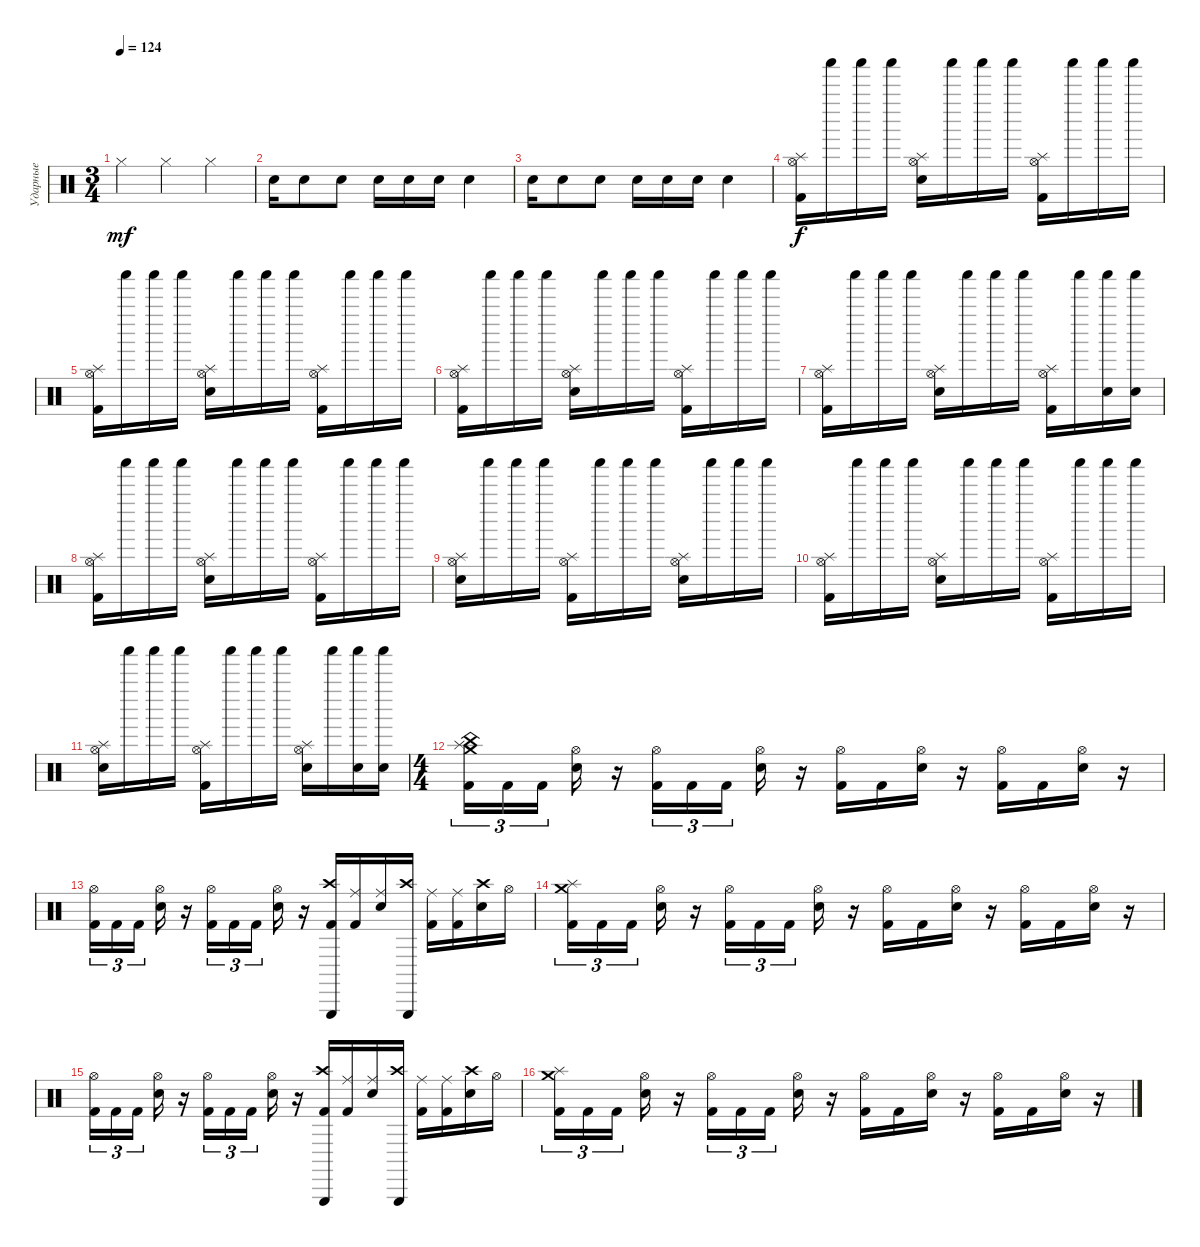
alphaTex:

\track ("Ударные" "Ударные") {instrument percussion bank 127}
\staff
\articulation defaults
\ts (3 4)
\tempo 124
\clef neutral
\ks c "Hi-Hat (closed)".4{dy mf} "Hi-Hat (closed)".4 "Hi-Hat (closed)".4
|
"Snare (hit) 2".16 "Snare (hit) 2".8 "Snare (hit) 2".8 "Snare (hit) 2".16 "Snare (hit) 2".16 "Snare (hit) 2".16 "Snare (hit) 2".4 |
"Snare (hit) 2".16 "Snare (hit) 2".8 "Snare (hit) 2".8 "Snare (hit) 2".16 "Snare (hit) 2".16 "Snare (hit) 2".16 "Snare (hit) 2".4 |
("Splash (hit)" "Hi-Hat (open)" "Kick (hit) 2").16{dy f} "Shaker (hit)".16 "Shaker (hit)".16 "Shaker (hit)".16 ("Splash (hit)" "Hi-Hat (open)" "Snare (hit) 2").16 "Shaker (hit)".16 "Shaker (hit)".16 "Shaker (hit)".16 ("Splash (hit)" "Hi-Hat (open)" "Kick (hit) 2").16 "Shaker (hit)".16 "Shaker (hit)".16 "Shaker (hit)".16 |
("Splash (hit)" "Hi-Hat (open)" "Kick (hit) 2").16 "Shaker (hit)".16 "Shaker (hit)".16 "Shaker (hit)".16 ("Splash (hit)" "Hi-Hat (open)" "Snare (hit) 2").16 "Shaker (hit)".16 "Shaker (hit)".16 "Shaker (hit)".16 ("Splash (hit)" "Hi-Hat (open)" "Kick (hit) 2").16 "Shaker (hit)".16 "Shaker (hit)".16 "Shaker (hit)".16 |
("Splash (hit)" "Hi-Hat (open)" "Kick (hit) 2").16 "Shaker (hit)".16 "Shaker (hit)".16 "Shaker (hit)".16 ("Splash (hit)" "Hi-Hat (open)" "Snare (hit) 2").16 "Shaker (hit)".16 "Shaker (hit)".16 "Shaker (hit)".16 ("Splash (hit)" "Hi-Hat (open)" "Kick (hit) 2").16 "Shaker (hit)".16 "Shaker (hit)".16 "Shaker (hit)".16 |
("Splash (hit)" "Hi-Hat (open)" "Kick (hit) 2").16 "Shaker (hit)".16 "Shaker (hit)".16 "Shaker (hit)".16 ("Splash (hit)" "Hi-Hat (open)" "Snare (hit) 2").16 "Shaker (hit)".16 "Shaker (hit)".16 "Shaker (hit)".16 ("Splash (hit)" "Hi-Hat (open)" "Kick (hit) 2").16 "Shaker (hit)".16 ("Shaker (hit)" "Snare (hit) 2").16 ("Shaker (hit)" "Snare (hit) 2").16 |
("Splash (hit)" "Hi-Hat (open)" "Kick (hit) 2").16 "Shaker (hit)".16 "Shaker (hit)".16 "Shaker (hit)".16 ("Splash (hit)" "Hi-Hat (open)" "Snare (hit) 2").16 "Shaker (hit)".16 "Shaker (hit)".16 "Shaker (hit)".16 ("Splash (hit)" "Hi-Hat (open)" "Kick (hit) 2").16 "Shaker (hit)".16 "Shaker (hit)".16 "Shaker (hit)".16 |
("Splash (hit)" "Hi-Hat (open)" "Snare (hit) 2").16 "Shaker (hit)".16 "Shaker (hit)".16 "Shaker (hit)".16 ("Splash (hit)" "Hi-Hat (open)" "Kick (hit) 2").16 "Shaker (hit)".16 "Shaker (hit)".16 "Shaker (hit)".16 ("Splash (hit)" "Hi-Hat (open)" "Snare (hit) 2").16 "Shaker (hit)".16 "Shaker (hit)".16 "Shaker (hit)".16 |
("Splash (hit)" "Hi-Hat (open)" "Kick (hit) 2").16 "Shaker (hit)".16 "Shaker (hit)".16 "Shaker (hit)".16 ("Splash (hit)" "Hi-Hat (open)" "Snare (hit) 2").16 "Shaker (hit)".16 "Shaker (hit)".16 "Shaker (hit)".16 ("Splash (hit)" "Hi-Hat (open)" "Kick (hit) 2").16 "Shaker (hit)".16 "Shaker (hit)".16 "Shaker (hit)".16 |
("Splash (hit)" "Hi-Hat (open)" "Snare (hit) 2").16 "Shaker (hit)".16 "Shaker (hit)".16 "Shaker (hit)".16 ("Splash (hit)" "Hi-Hat (open)" "Kick (hit) 2").16 "Shaker (hit)".16 "Shaker (hit)".16 "Shaker (hit)".16 ("Splash (hit)" "Hi-Hat (open)" "Snare (hit) 2").16 "Shaker (hit)".16 ("Shaker (hit)" "Snare (hit) 2").16 ("Shaker (hit)" "Snare (hit) 2").16 |
\ts (4 4)
("Crash medium (hit)" "Splash (hit)" "China (hit)" "Kick (hit) 2").16{tu (3 2)} "Kick (hit) 2".16{tu (3 2)} "Kick (hit) 2".16{tu (3 2) beam splitsecondary} ("Hi-Hat (open)" "Snare (hit) 2").16 r.16 ("Hi-Hat (open)" "Kick (hit) 2").16{tu (3 2)} "Kick (hit) 2".16{tu (3 2)} "Kick (hit) 2".16{tu (3 2) beam splitsecondary} ("Hi-Hat (open)" "Snare (hit) 2").16 r.16 ("Hi-Hat (open)" "Kick (hit) 2").16 "Kick (hit) 2".16 ("Hi-Hat (open)" "Snare (hit) 2").16 r.16 ("Hi-Hat (open)" "Kick (hit) 2").16 "Kick (hit) 2".16 ("Hi-Hat (open)" "Snare (hit) 2").16 r.16 |
("Hi-Hat (open)" "Kick (hit) 2").16{tu (3 2)} "Kick (hit) 2".16{tu (3 2)} "Kick (hit) 2".16{tu (3 2) beam splitsecondary} ("Hi-Hat (open)" "Snare (hit) 2").16 r.16 ("Hi-Hat (open)" "Kick (hit) 2").16{tu (3 2)} "Kick (hit) 2".16{tu (3 2)} "Kick (hit) 2".16{tu (3 2) beam splitsecondary} ("Hi-Hat (open)" "Snare (hit) 2").16 r.16 ("Crash high (hit)" "Triangle (hit)" "Kick (hit) 2").16 ("Ride (middle)" "Kick (hit) 2").16 ("Ride (middle)" "Snare (hit) 2").16 ("Crash high (hit)" "Triangle (hit)").16 ("Ride (middle)" "Kick (hit) 2").16 ("Ride (middle)" "Kick (hit) 2").16 ("Crash high (hit)" "Snare (hit) 2").16 "Hi-Hat (open)".16 |
("Crash medium (hit)" "Splash (hit)" "Kick (hit) 2").16{tu (3 2)} "Kick (hit) 2".16{tu (3 2)} "Kick (hit) 2".16{tu (3 2) beam splitsecondary} ("Hi-Hat (open)" "Snare (hit) 2").16 r.16 ("Hi-Hat (open)" "Kick (hit) 2").16{tu (3 2)} "Kick (hit) 2".16{tu (3 2)} "Kick (hit) 2".16{tu (3 2) beam splitsecondary} ("Hi-Hat (open)" "Snare (hit) 2").16 r.16 ("Hi-Hat (open)" "Kick (hit) 2").16 "Kick (hit) 2".16 ("Hi-Hat (open)" "Snare (hit) 2").16 r.16 ("Hi-Hat (open)" "Kick (hit) 2").16 "Kick (hit) 2".16 ("Hi-Hat (open)" "Snare (hit) 2").16 r.16 |
("Hi-Hat (open)" "Kick (hit) 2").16{tu (3 2)} "Kick (hit) 2".16{tu (3 2)} "Kick (hit) 2".16{tu (3 2) beam splitsecondary} ("Hi-Hat (open)" "Snare (hit) 2").16 r.16 ("Hi-Hat (open)" "Kick (hit) 2").16{tu (3 2)} "Kick (hit) 2".16{tu (3 2)} "Kick (hit) 2".16{tu (3 2) beam splitsecondary} ("Hi-Hat (open)" "Snare (hit) 2").16 r.16 ("Crash high (hit)" "Triangle (hit)" "Kick (hit) 2").16 ("Ride (middle)" "Kick (hit) 2").16 ("Ride (middle)" "Snare (hit) 2").16 ("Crash high (hit)" "Triangle (hit)").16 ("Ride (middle)" "Kick (hit) 2").16 ("Ride (middle)" "Kick (hit) 2").16 ("Crash high (hit)" "Snare (hit) 2").16 "Hi-Hat (open)".16 |
("Crash medium (hit)" "Splash (hit)" "Kick (hit) 2").16{tu (3 2)} "Kick (hit) 2".16{tu (3 2)} "Kick (hit) 2".16{tu (3 2) beam splitsecondary} ("Hi-Hat (open)" "Snare (hit) 2").16 r.16 ("Hi-Hat (open)" "Kick (hit) 2").16{tu (3 2)} "Kick (hit) 2".16{tu (3 2)} "Kick (hit) 2".16{tu (3 2) beam splitsecondary} ("Hi-Hat (open)" "Snare (hit) 2").16 r.16 ("Hi-Hat (open)" "Kick (hit) 2").16 "Kick (hit) 2".16 ("Hi-Hat (open)" "Snare (hit) 2").16 r.16 ("Hi-Hat (open)" "Kick (hit) 2").16 "Kick (hit) 2".16 ("Hi-Hat (open)" "Snare (hit) 2").16 r.16
